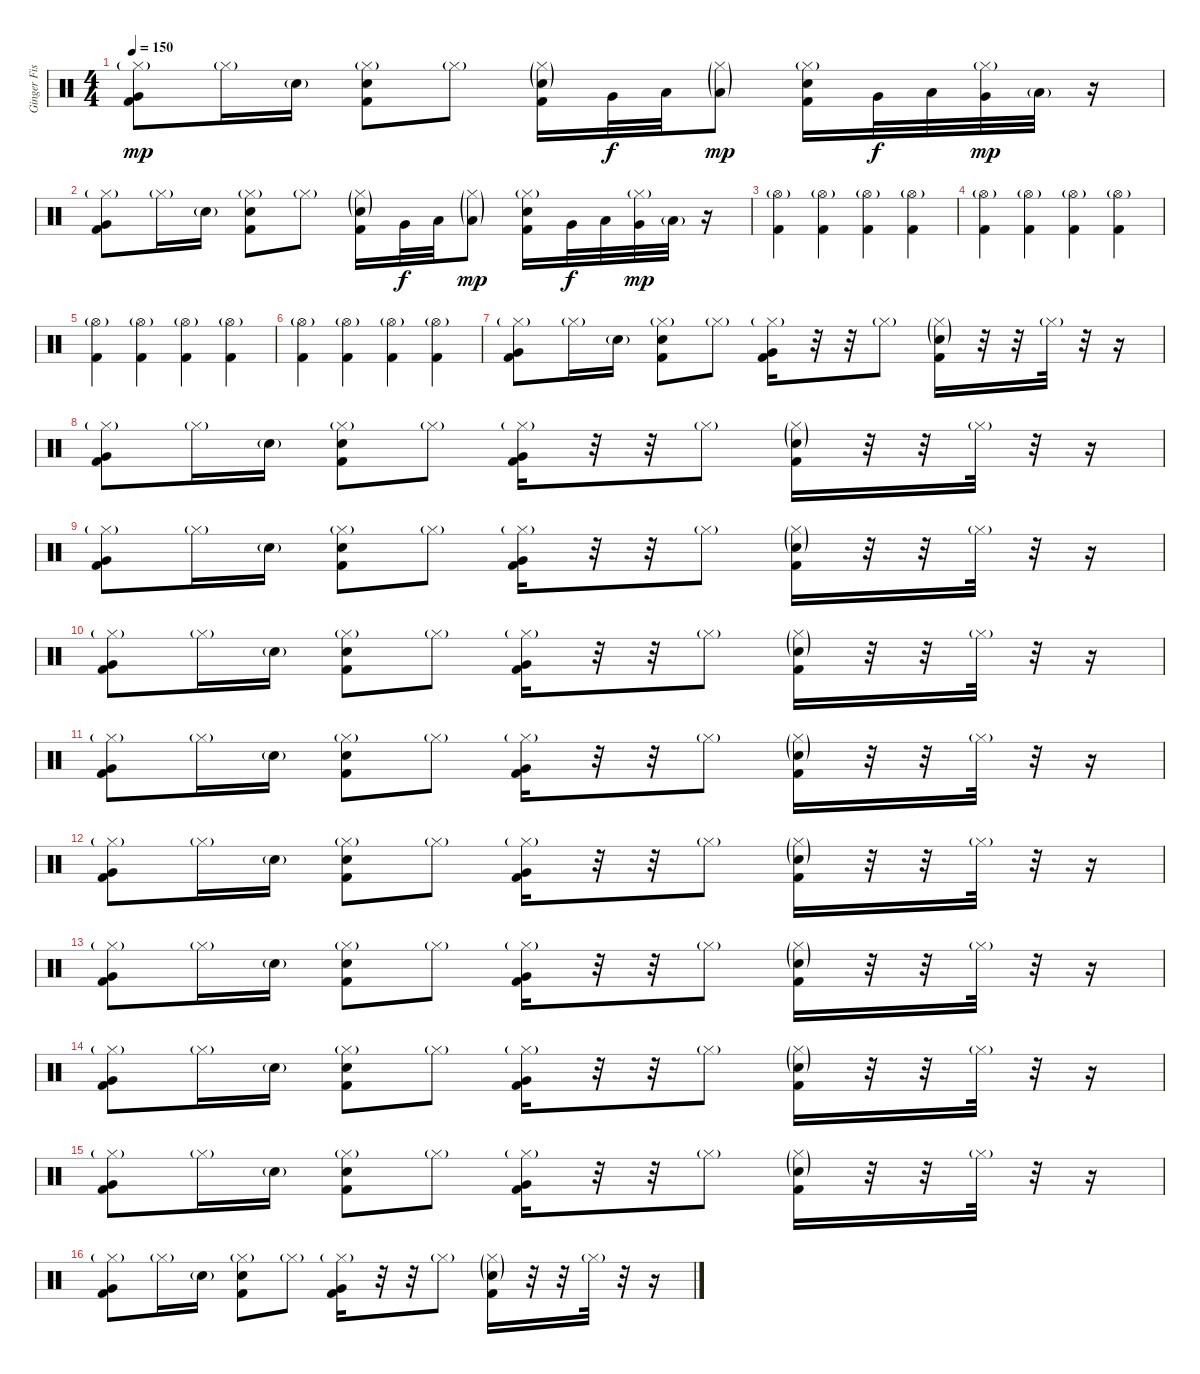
\track ("Ginger Fish" "Ginger Fis") {instrument percussion}
\staff {score}
\articulation defaults
\ts (4 4)
\tempo 150
\clef neutral
\ks c
("Hi-Hat (closed)"{g} "Very Low Tom (hit)" "Kick (hit) 2").8{dy mp} "Hi-Hat (closed)"{g}.16 "Electric Snare (hit)"{g}.16 ("Hi-Hat (closed)"{g} "Electric Snare (hit)" "Kick (hit) 2").8 "Hi-Hat (closed)"{g}.8 ("Hi-Hat (closed)"{g} "Snare (hit) 2"{g} "Kick (hit) 2").16 "Very Low Tom (hit)".32{dy f} "Low Floor Tom (hit)".32 ("Hi-Hat (closed)"{g} "Low Floor Tom (hit)"{g}).8{dy mp} ("Hi-Hat (closed)"{g} "Snare (hit) 2" "Kick (hit) 2").16 "Very Low Tom (hit)".32{dy f} "Low Floor Tom (hit)".32 ("Hi-Hat (closed)"{g} "Very Low Tom (hit)").32{dy mp} "Low Floor Tom (hit)"{g}.32 r.16 |
("Hi-Hat (closed)"{g} "Very Low Tom (hit)" "Kick (hit) 2").8 "Hi-Hat (closed)"{g}.16 "Electric Snare (hit)"{g}.16 ("Hi-Hat (closed)"{g} "Electric Snare (hit)" "Kick (hit) 2").8 "Hi-Hat (closed)"{g}.8 ("Hi-Hat (closed)"{g} "Snare (hit) 2"{g} "Kick (hit) 2").16 "Very Low Tom (hit)".32{dy f} "Low Floor Tom (hit)".32 ("Hi-Hat (closed)"{g} "Low Floor Tom (hit)"{g}).8{dy mp} ("Hi-Hat (closed)"{g} "Snare (hit) 2" "Kick (hit) 2").16 "Very Low Tom (hit)".32{dy f} "Low Floor Tom (hit)".32 ("Hi-Hat (closed)"{g} "Very Low Tom (hit)").32{dy mp} "Low Floor Tom (hit)"{g}.32 r.16 |
("Hi-Hat (open)"{g} "Kick (hit) 2").4 ("Hi-Hat (open)"{g} "Kick (hit) 2").4 ("Hi-Hat (open)"{g} "Kick (hit) 2").4 ("Hi-Hat (open)"{g} "Kick (hit) 2").4 |
("Hi-Hat (open)"{g} "Kick (hit) 2").4 ("Hi-Hat (open)"{g} "Kick (hit) 2").4 ("Hi-Hat (open)"{g} "Kick (hit) 2").4 ("Hi-Hat (open)"{g} "Kick (hit) 2").4 |
("Hi-Hat (open)"{g} "Kick (hit) 2").4 ("Hi-Hat (open)"{g} "Kick (hit) 2").4 ("Hi-Hat (open)"{g} "Kick (hit) 2").4 ("Hi-Hat (open)"{g} "Kick (hit) 2").4 |
("Hi-Hat (open)"{g} "Kick (hit) 2").4 ("Hi-Hat (open)"{g} "Kick (hit) 2").4 ("Hi-Hat (open)"{g} "Kick (hit) 2").4 ("Hi-Hat (open)"{g} "Kick (hit) 2").4 |
("Hi-Hat (closed)"{g} "Very Low Tom (hit)" "Kick (hit) 2").8 "Hi-Hat (closed)"{g}.16 "Electric Snare (hit)"{g}.16 ("Hi-Hat (closed)"{g} "Electric Snare (hit)" "Kick (hit) 2").8 "Hi-Hat (closed)"{g}.8 ("Hi-Hat (closed)"{g} "Very Low Tom (hit)" "Kick (hit) 2").16 r.32 r.32 "Hi-Hat (closed)"{g}.8 ("Hi-Hat (closed)"{g} "Electric Snare (hit)"{g} "Kick (hit) 2").16 r.32 r.32 "Hi-Hat (closed)"{g}.32 r.32 r.16 |
("Hi-Hat (closed)"{g} "Very Low Tom (hit)" "Kick (hit) 2").8 "Hi-Hat (closed)"{g}.16 "Electric Snare (hit)"{g}.16 ("Hi-Hat (closed)"{g} "Electric Snare (hit)" "Kick (hit) 2").8 "Hi-Hat (closed)"{g}.8 ("Hi-Hat (closed)"{g} "Very Low Tom (hit)" "Kick (hit) 2").16 r.32 r.32 "Hi-Hat (closed)"{g}.8 ("Hi-Hat (closed)"{g} "Electric Snare (hit)"{g} "Kick (hit) 2").16 r.32 r.32 "Hi-Hat (closed)"{g}.32 r.32 r.16 |
("Hi-Hat (closed)"{g} "Very Low Tom (hit)" "Kick (hit) 2").8 "Hi-Hat (closed)"{g}.16 "Electric Snare (hit)"{g}.16 ("Hi-Hat (closed)"{g} "Electric Snare (hit)" "Kick (hit) 2").8 "Hi-Hat (closed)"{g}.8 ("Hi-Hat (closed)"{g} "Very Low Tom (hit)" "Kick (hit) 2").16 r.32 r.32 "Hi-Hat (closed)"{g}.8 ("Hi-Hat (closed)"{g} "Electric Snare (hit)"{g} "Kick (hit) 2").16 r.32 r.32 "Hi-Hat (closed)"{g}.32 r.32 r.16 |
("Hi-Hat (closed)"{g} "Very Low Tom (hit)" "Kick (hit) 2").8 "Hi-Hat (closed)"{g}.16 "Electric Snare (hit)"{g}.16 ("Hi-Hat (closed)"{g} "Electric Snare (hit)" "Kick (hit) 2").8 "Hi-Hat (closed)"{g}.8 ("Hi-Hat (closed)"{g} "Very Low Tom (hit)" "Kick (hit) 2").16 r.32 r.32 "Hi-Hat (closed)"{g}.8 ("Hi-Hat (closed)"{g} "Electric Snare (hit)"{g} "Kick (hit) 2").16 r.32 r.32 "Hi-Hat (closed)"{g}.32 r.32 r.16 |
("Hi-Hat (closed)"{g} "Very Low Tom (hit)" "Kick (hit) 2").8 "Hi-Hat (closed)"{g}.16 "Electric Snare (hit)"{g}.16 ("Hi-Hat (closed)"{g} "Electric Snare (hit)" "Kick (hit) 2").8 "Hi-Hat (closed)"{g}.8 ("Hi-Hat (closed)"{g} "Very Low Tom (hit)" "Kick (hit) 2").16 r.32 r.32 "Hi-Hat (closed)"{g}.8 ("Hi-Hat (closed)"{g} "Electric Snare (hit)"{g} "Kick (hit) 2").16 r.32 r.32 "Hi-Hat (closed)"{g}.32 r.32 r.16 |
("Hi-Hat (closed)"{g} "Very Low Tom (hit)" "Kick (hit) 2").8 "Hi-Hat (closed)"{g}.16 "Electric Snare (hit)"{g}.16 ("Hi-Hat (closed)"{g} "Electric Snare (hit)" "Kick (hit) 2").8 "Hi-Hat (closed)"{g}.8 ("Hi-Hat (closed)"{g} "Very Low Tom (hit)" "Kick (hit) 2").16 r.32 r.32 "Hi-Hat (closed)"{g}.8 ("Hi-Hat (closed)"{g} "Electric Snare (hit)"{g} "Kick (hit) 2").16 r.32 r.32 "Hi-Hat (closed)"{g}.32 r.32 r.16 |
("Hi-Hat (closed)"{g} "Very Low Tom (hit)" "Kick (hit) 2").8 "Hi-Hat (closed)"{g}.16 "Electric Snare (hit)"{g}.16 ("Hi-Hat (closed)"{g} "Electric Snare (hit)" "Kick (hit) 2").8 "Hi-Hat (closed)"{g}.8 ("Hi-Hat (closed)"{g} "Very Low Tom (hit)" "Kick (hit) 2").16 r.32 r.32 "Hi-Hat (closed)"{g}.8 ("Hi-Hat (closed)"{g} "Electric Snare (hit)"{g} "Kick (hit) 2").16 r.32 r.32 "Hi-Hat (closed)"{g}.32 r.32 r.16 |
("Hi-Hat (closed)"{g} "Very Low Tom (hit)" "Kick (hit) 2").8 "Hi-Hat (closed)"{g}.16 "Electric Snare (hit)"{g}.16 ("Hi-Hat (closed)"{g} "Electric Snare (hit)" "Kick (hit) 2").8 "Hi-Hat (closed)"{g}.8 ("Hi-Hat (closed)"{g} "Very Low Tom (hit)" "Kick (hit) 2").16 r.32 r.32 "Hi-Hat (closed)"{g}.8 ("Hi-Hat (closed)"{g} "Electric Snare (hit)"{g} "Kick (hit) 2").16 r.32 r.32 "Hi-Hat (closed)"{g}.32 r.32 r.16 |
("Hi-Hat (closed)"{g} "Very Low Tom (hit)" "Kick (hit) 2").8 "Hi-Hat (closed)"{g}.16 "Electric Snare (hit)"{g}.16 ("Hi-Hat (closed)"{g} "Electric Snare (hit)" "Kick (hit) 2").8 "Hi-Hat (closed)"{g}.8 ("Hi-Hat (closed)"{g} "Very Low Tom (hit)" "Kick (hit) 2").16 r.32 r.32 "Hi-Hat (closed)"{g}.8 ("Hi-Hat (closed)"{g} "Electric Snare (hit)"{g} "Kick (hit) 2").16 r.32 r.32 "Hi-Hat (closed)"{g}.32 r.32 r.16 |
("Hi-Hat (closed)"{g} "Very Low Tom (hit)" "Kick (hit) 2").8 "Hi-Hat (closed)"{g}.16 "Electric Snare (hit)"{g}.16 ("Hi-Hat (closed)"{g} "Electric Snare (hit)" "Kick (hit) 2").8 "Hi-Hat (closed)"{g}.8 ("Hi-Hat (closed)"{g} "Very Low Tom (hit)" "Kick (hit) 2").16 r.32 r.32 "Hi-Hat (closed)"{g}.8 ("Hi-Hat (closed)"{g} "Electric Snare (hit)"{g} "Kick (hit) 2").16 r.32 r.32 "Hi-Hat (closed)"{g}.32 r.32 r.16
